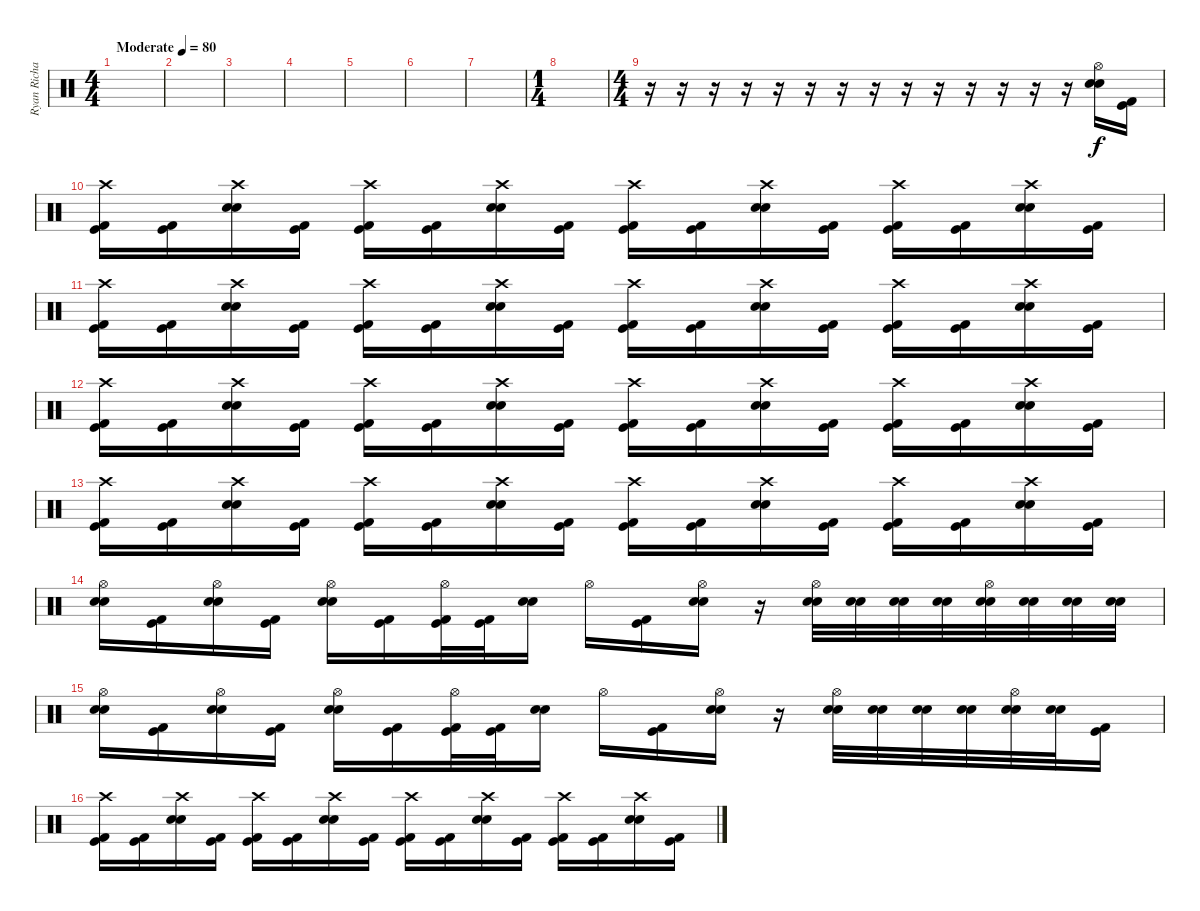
\track ("Ryan Richards" "Ryan Richa") {instrument percussion}
\staff {score}
\articulation defaults
\ts (4 4)
\tempo (80 "Moderate")
\clef neutral
\ks c
|
|
|
|
|
|
|
\ts (1 4)
|
\ts (4 4)
r.16 r.16 r.16 r.16 r.16 r.16 r.16 r.16 r.16 r.16 r.16 r.16 r.16 r.16 ("Hi-Hat (open)" "Snare (hit) 2" "Electric Snare (hit)").16 ("Kick (hit)" "Kick (hit) 2").16 |
("Kick (hit)" "Crash high (hit)" "Kick (hit) 2").16 ("Kick (hit)" "Kick (hit) 2").16 ("Crash high (hit)" "Snare (hit) 2" "Electric Snare (hit)").16 ("Kick (hit)" "Kick (hit) 2").16 ("Kick (hit)" "Crash high (hit)" "Kick (hit) 2").16 ("Kick (hit)" "Kick (hit) 2").16 ("Crash high (hit)" "Snare (hit) 2" "Electric Snare (hit)").16 ("Kick (hit)" "Kick (hit) 2").16 ("Kick (hit)" "Crash high (hit)" "Kick (hit) 2").16 ("Kick (hit)" "Kick (hit) 2").16 ("Crash high (hit)" "Snare (hit) 2" "Electric Snare (hit)").16 ("Kick (hit)" "Kick (hit) 2").16 ("Kick (hit)" "Crash high (hit)" "Kick (hit) 2").16 ("Kick (hit)" "Kick (hit) 2").16 ("Crash high (hit)" "Snare (hit) 2" "Electric Snare (hit)").16 ("Kick (hit)" "Kick (hit) 2").16 |
("Kick (hit)" "Crash high (hit)" "Kick (hit) 2").16 ("Kick (hit)" "Kick (hit) 2").16 ("Crash high (hit)" "Snare (hit) 2" "Electric Snare (hit)").16 ("Kick (hit)" "Kick (hit) 2").16 ("Kick (hit)" "Crash high (hit)" "Kick (hit) 2").16 ("Kick (hit)" "Kick (hit) 2").16 ("Crash high (hit)" "Snare (hit) 2" "Electric Snare (hit)").16 ("Kick (hit)" "Kick (hit) 2").16 ("Kick (hit)" "Crash high (hit)" "Kick (hit) 2").16 ("Kick (hit)" "Kick (hit) 2").16 ("Crash high (hit)" "Snare (hit) 2" "Electric Snare (hit)").16 ("Kick (hit)" "Kick (hit) 2").16 ("Kick (hit)" "Crash high (hit)" "Kick (hit) 2").16 ("Kick (hit)" "Kick (hit) 2").16 ("Crash high (hit)" "Snare (hit) 2" "Electric Snare (hit)").16 ("Kick (hit)" "Kick (hit) 2").16 |
("Kick (hit)" "Crash high (hit)" "Kick (hit) 2").16 ("Kick (hit)" "Kick (hit) 2").16 ("Crash high (hit)" "Snare (hit) 2" "Electric Snare (hit)").16 ("Kick (hit)" "Kick (hit) 2").16 ("Kick (hit)" "Crash high (hit)" "Kick (hit) 2").16 ("Kick (hit)" "Kick (hit) 2").16 ("Crash high (hit)" "Snare (hit) 2" "Electric Snare (hit)").16 ("Kick (hit)" "Kick (hit) 2").16 ("Kick (hit)" "Crash high (hit)" "Kick (hit) 2").16 ("Kick (hit)" "Kick (hit) 2").16 ("Crash high (hit)" "Snare (hit) 2" "Electric Snare (hit)").16 ("Kick (hit)" "Kick (hit) 2").16 ("Kick (hit)" "Crash high (hit)" "Kick (hit) 2").16 ("Kick (hit)" "Kick (hit) 2").16 ("Crash high (hit)" "Snare (hit) 2" "Electric Snare (hit)").16 ("Kick (hit)" "Kick (hit) 2").16 |
("Kick (hit)" "Crash high (hit)" "Kick (hit) 2").16 ("Kick (hit)" "Kick (hit) 2").16 ("Crash high (hit)" "Snare (hit) 2" "Electric Snare (hit)").16 ("Kick (hit)" "Kick (hit) 2").16 ("Kick (hit)" "Crash high (hit)" "Kick (hit) 2").16 ("Kick (hit)" "Kick (hit) 2").16 ("Crash high (hit)" "Snare (hit) 2" "Electric Snare (hit)").16 ("Kick (hit)" "Kick (hit) 2").16 ("Kick (hit)" "Crash high (hit)" "Kick (hit) 2").16 ("Kick (hit)" "Kick (hit) 2").16 ("Crash high (hit)" "Snare (hit) 2" "Electric Snare (hit)").16 ("Kick (hit)" "Kick (hit) 2").16 ("Kick (hit)" "Crash high (hit)" "Kick (hit) 2").16 ("Kick (hit)" "Kick (hit) 2").16 ("Crash high (hit)" "Snare (hit) 2" "Electric Snare (hit)").16 ("Kick (hit)" "Kick (hit) 2").16 |
("Hi-Hat (open)" "Snare (hit) 2" "Electric Snare (hit)").16 ("Kick (hit)" "Kick (hit) 2").16 ("Hi-Hat (open)" "Snare (hit) 2" "Electric Snare (hit)").16 ("Kick (hit)" "Kick (hit) 2").16 ("Hi-Hat (open)" "Snare (hit) 2" "Electric Snare (hit)").16 ("Kick (hit)" "Kick (hit) 2").16 ("Kick (hit)" "Hi-Hat (open)" "Kick (hit) 2").32 ("Kick (hit)" "Kick (hit) 2").32 ("Snare (hit) 2" "Electric Snare (hit)").16 "Hi-Hat (open)".16 ("Kick (hit)" "Kick (hit) 2").16 ("Hi-Hat (open)" "Snare (hit) 2" "Electric Snare (hit)").16 r.16 ("Hi-Hat (open)" "Snare (hit) 2" "Electric Snare (hit)").32 ("Snare (hit) 2" "Electric Snare (hit)").32 ("Snare (hit) 2" "Electric Snare (hit)").32 ("Snare (hit) 2" "Electric Snare (hit)").32 ("Hi-Hat (open)" "Snare (hit) 2" "Electric Snare (hit)").32 ("Snare (hit) 2" "Electric Snare (hit)").32 ("Snare (hit) 2" "Electric Snare (hit)").32 ("Snare (hit) 2" "Electric Snare (hit)").32 |
("Hi-Hat (open)" "Snare (hit) 2" "Electric Snare (hit)").16 ("Kick (hit)" "Kick (hit) 2").16 ("Hi-Hat (open)" "Snare (hit) 2" "Electric Snare (hit)").16 ("Kick (hit)" "Kick (hit) 2").16 ("Hi-Hat (open)" "Snare (hit) 2" "Electric Snare (hit)").16 ("Kick (hit)" "Kick (hit) 2").16 ("Kick (hit)" "Hi-Hat (open)" "Kick (hit) 2").32 ("Kick (hit)" "Kick (hit) 2").32 ("Snare (hit) 2" "Electric Snare (hit)").16 "Hi-Hat (open)".16 ("Kick (hit)" "Kick (hit) 2").16 ("Hi-Hat (open)" "Snare (hit) 2" "Electric Snare (hit)").16 r.16 ("Hi-Hat (open)" "Snare (hit) 2" "Electric Snare (hit)").32 ("Snare (hit) 2" "Electric Snare (hit)").32 ("Snare (hit) 2" "Electric Snare (hit)").32 ("Snare (hit) 2" "Electric Snare (hit)").32 ("Hi-Hat (open)" "Snare (hit) 2" "Electric Snare (hit)").32 ("Snare (hit) 2" "Electric Snare (hit)").32 ("Kick (hit)" "Kick (hit) 2").16 |
("Kick (hit)" "Crash high (hit)" "Kick (hit) 2").16 ("Kick (hit)" "Kick (hit) 2").16 ("Crash high (hit)" "Snare (hit) 2" "Electric Snare (hit)").16 ("Kick (hit)" "Kick (hit) 2").16 ("Kick (hit)" "Crash high (hit)" "Kick (hit) 2").16 ("Kick (hit)" "Kick (hit) 2").16 ("Crash high (hit)" "Snare (hit) 2" "Electric Snare (hit)").16 ("Kick (hit)" "Kick (hit) 2").16 ("Kick (hit)" "Crash high (hit)" "Kick (hit) 2").16 ("Kick (hit)" "Kick (hit) 2").16 ("Crash high (hit)" "Snare (hit) 2" "Electric Snare (hit)").16 ("Kick (hit)" "Kick (hit) 2").16 ("Kick (hit)" "Crash high (hit)" "Kick (hit) 2").16 ("Kick (hit)" "Kick (hit) 2").16 ("Crash high (hit)" "Snare (hit) 2" "Electric Snare (hit)").16 ("Kick (hit)" "Kick (hit) 2").16
